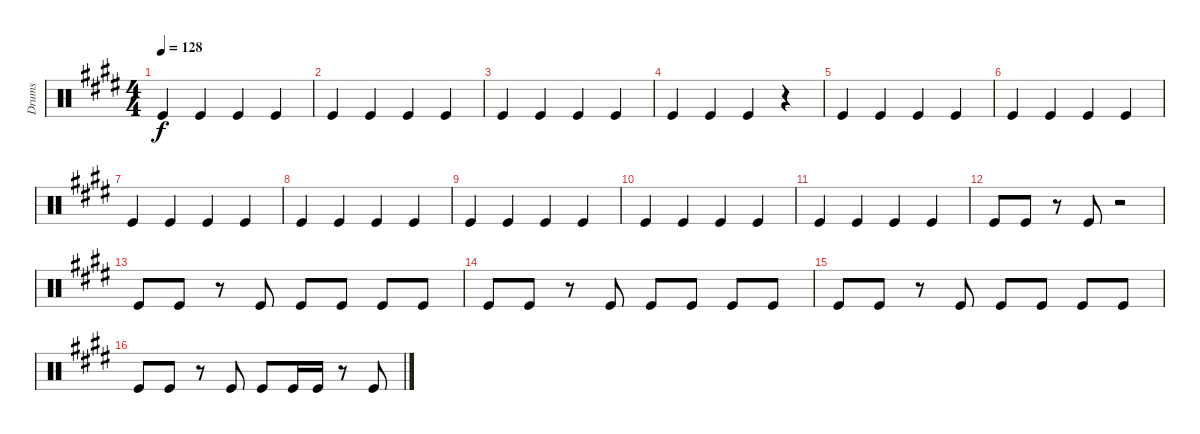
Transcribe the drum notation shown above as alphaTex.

\track ("Drums" "Drums") {instrument percussion}
\staff {score}
\articulation defaults
\ts (4 4)
\tempo 128
\clef neutral
\ks e "Kick (hit)".4{dy f} "Kick (hit)".4 "Kick (hit)".4 "Kick (hit)".4
|
"Kick (hit)".4 "Kick (hit)".4 "Kick (hit)".4 "Kick (hit)".4 |
"Kick (hit)".4 "Kick (hit)".4 "Kick (hit)".4 "Kick (hit)".4 |
"Kick (hit)".4 "Kick (hit)".4 "Kick (hit)".4 r.4 |
"Kick (hit)".4 "Kick (hit)".4 "Kick (hit)".4 "Kick (hit)".4 |
"Kick (hit)".4 "Kick (hit)".4 "Kick (hit)".4 "Kick (hit)".4 |
"Kick (hit)".4 "Kick (hit)".4 "Kick (hit)".4 "Kick (hit)".4 |
"Kick (hit)".4 "Kick (hit)".4 "Kick (hit)".4 "Kick (hit)".4 |
"Kick (hit)".4 "Kick (hit)".4 "Kick (hit)".4 "Kick (hit)".4 |
"Kick (hit)".4 "Kick (hit)".4 "Kick (hit)".4 "Kick (hit)".4 |
"Kick (hit)".4 "Kick (hit)".4 "Kick (hit)".4 "Kick (hit)".4 |
"Kick (hit)".8 "Kick (hit)".8 r.8 "Kick (hit)".8 r.2 |
"Kick (hit)".8 "Kick (hit)".8 r.8 "Kick (hit)".8 "Kick (hit)".8 "Kick (hit)".8 "Kick (hit)".8 "Kick (hit)".8 |
"Kick (hit)".8 "Kick (hit)".8 r.8 "Kick (hit)".8 "Kick (hit)".8 "Kick (hit)".8 "Kick (hit)".8 "Kick (hit)".8 |
"Kick (hit)".8 "Kick (hit)".8 r.8 "Kick (hit)".8 "Kick (hit)".8 "Kick (hit)".8 "Kick (hit)".8 "Kick (hit)".8 |
"Kick (hit)".8 "Kick (hit)".8 r.8 "Kick (hit)".8 "Kick (hit)".8 "Kick (hit)".16 "Kick (hit)".16 r.8 "Kick (hit)".8
